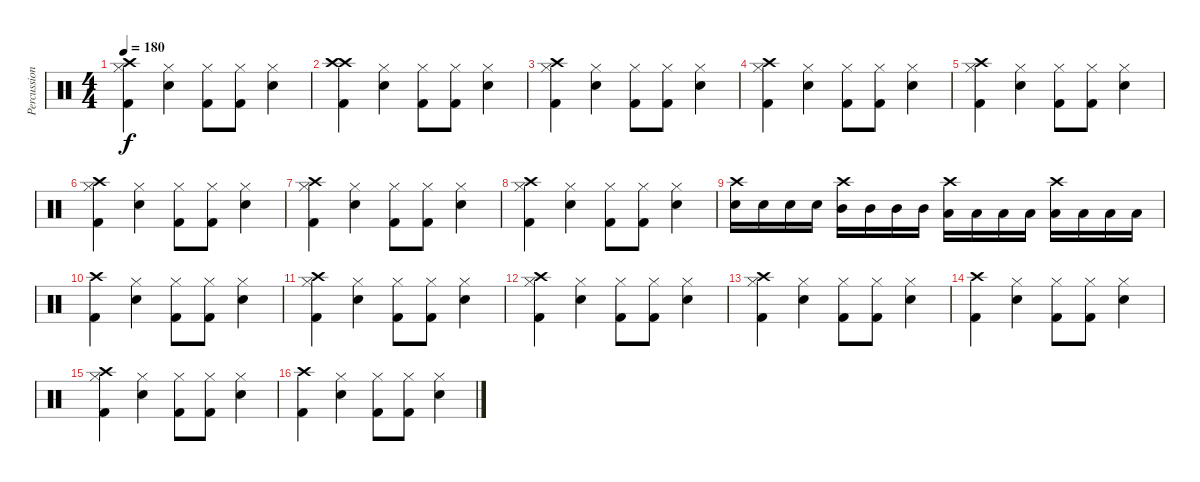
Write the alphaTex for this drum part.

\track ("Percussion" "Percussion") {instrument percussion}
\staff {score}
\articulation defaults
\ts (4 4)
\tempo 180
\clef neutral
\ks c
("Crash high (hit)" "Hi-Hat (closed)" "Kick (hit) 2").4{dy f} ("Hi-Hat (closed)" "Snare (hit) 2").4 ("Hi-Hat (closed)" "Kick (hit) 2").8 ("Hi-Hat (closed)" "Kick (hit) 2").8 ("Hi-Hat (closed)" "Snare (hit) 2").4 |
("Crash high (hit)" "Crash high (hit)" "Kick (hit) 2").4 ("Hi-Hat (closed)" "Snare (hit) 2").4 ("Hi-Hat (closed)" "Kick (hit) 2").8 ("Hi-Hat (closed)" "Kick (hit) 2").8 ("Hi-Hat (closed)" "Snare (hit) 2").4 |
("Crash high (hit)" "Hi-Hat (closed)" "Kick (hit) 2").4 ("Hi-Hat (closed)" "Snare (hit) 2").4 ("Hi-Hat (closed)" "Kick (hit) 2").8 ("Hi-Hat (closed)" "Kick (hit) 2").8 ("Hi-Hat (closed)" "Snare (hit) 2").4 |
("Crash high (hit)" "Hi-Hat (closed)" "Kick (hit) 2").4 ("Hi-Hat (closed)" "Snare (hit) 2").4 ("Hi-Hat (closed)" "Kick (hit) 2").8 ("Hi-Hat (closed)" "Kick (hit) 2").8 ("Hi-Hat (closed)" "Snare (hit) 2").4 |
("Crash high (hit)" "Hi-Hat (closed)" "Kick (hit) 2").4 ("Hi-Hat (closed)" "Snare (hit) 2").4 ("Hi-Hat (closed)" "Kick (hit) 2").8 ("Hi-Hat (closed)" "Kick (hit) 2").8 ("Hi-Hat (closed)" "Snare (hit) 2").4 |
("Crash high (hit)" "Hi-Hat (closed)" "Kick (hit) 2").4 ("Hi-Hat (closed)" "Snare (hit) 2").4 ("Hi-Hat (closed)" "Kick (hit) 2").8 ("Hi-Hat (closed)" "Kick (hit) 2").8 ("Hi-Hat (closed)" "Snare (hit) 2").4 |
("Crash high (hit)" "Hi-Hat (closed)" "Kick (hit) 2").4 ("Hi-Hat (closed)" "Snare (hit) 2").4 ("Hi-Hat (closed)" "Kick (hit) 2").8 ("Hi-Hat (closed)" "Kick (hit) 2").8 ("Hi-Hat (closed)" "Snare (hit) 2").4 |
("Crash high (hit)" "Hi-Hat (closed)" "Kick (hit) 2").4 ("Hi-Hat (closed)" "Snare (hit) 2").4 ("Hi-Hat (closed)" "Kick (hit) 2").8 ("Hi-Hat (closed)" "Kick (hit) 2").8 ("Hi-Hat (closed)" "Snare (hit) 2").4 |
("Crash high (hit)" "Snare (hit) 2").16 "Snare (hit) 2".16 "Snare (hit) 2".16 "Snare (hit) 2".16 ("Crash high (hit)" "Mid Tom (hit)").16 "Mid Tom (hit)".16 "Mid Tom (hit)".16 "Mid Tom (hit)".16 ("Crash high (hit)" "Low Tom (hit)").16 "Low Tom (hit)".16 "Low Tom (hit)".16 "Low Tom (hit)".16 ("Crash high (hit)" "Low Floor Tom (hit)").16 "Low Floor Tom (hit)".16 "Low Floor Tom (hit)".16 "Low Floor Tom (hit)".16 |
("Crash high (hit)" "Kick (hit) 2").4 ("Hi-Hat (closed)" "Snare (hit) 2").4 ("Hi-Hat (closed)" "Kick (hit) 2").8 ("Hi-Hat (closed)" "Kick (hit) 2").8 ("Hi-Hat (closed)" "Snare (hit) 2").4 |
("Crash high (hit)" "Hi-Hat (closed)" "Kick (hit) 2").4 ("Hi-Hat (closed)" "Snare (hit) 2").4 ("Hi-Hat (closed)" "Kick (hit) 2").8 ("Hi-Hat (closed)" "Kick (hit) 2").8 ("Hi-Hat (closed)" "Snare (hit) 2").4 |
("Crash high (hit)" "Hi-Hat (closed)" "Kick (hit) 2").4 ("Hi-Hat (closed)" "Snare (hit) 2").4 ("Hi-Hat (closed)" "Kick (hit) 2").8 ("Hi-Hat (closed)" "Kick (hit) 2").8 ("Hi-Hat (closed)" "Snare (hit) 2").4 |
("Crash high (hit)" "Hi-Hat (closed)" "Kick (hit) 2").4 ("Hi-Hat (closed)" "Snare (hit) 2").4 ("Hi-Hat (closed)" "Kick (hit) 2").8 ("Hi-Hat (closed)" "Kick (hit) 2").8 ("Hi-Hat (closed)" "Snare (hit) 2").4 |
("Crash high (hit)" "Kick (hit) 2").4 ("Hi-Hat (closed)" "Snare (hit) 2").4 ("Hi-Hat (closed)" "Kick (hit) 2").8 ("Hi-Hat (closed)" "Kick (hit) 2").8 ("Hi-Hat (closed)" "Snare (hit) 2").4 |
("Crash high (hit)" "Hi-Hat (closed)" "Kick (hit) 2").4 ("Hi-Hat (closed)" "Snare (hit) 2").4 ("Hi-Hat (closed)" "Kick (hit) 2").8 ("Hi-Hat (closed)" "Kick (hit) 2").8 ("Hi-Hat (closed)" "Snare (hit) 2").4 |
("Crash high (hit)" "Kick (hit) 2").4 ("Hi-Hat (closed)" "Snare (hit) 2").4 ("Hi-Hat (closed)" "Kick (hit) 2").8 ("Hi-Hat (closed)" "Kick (hit) 2").8 ("Hi-Hat (closed)" "Snare (hit) 2").4
